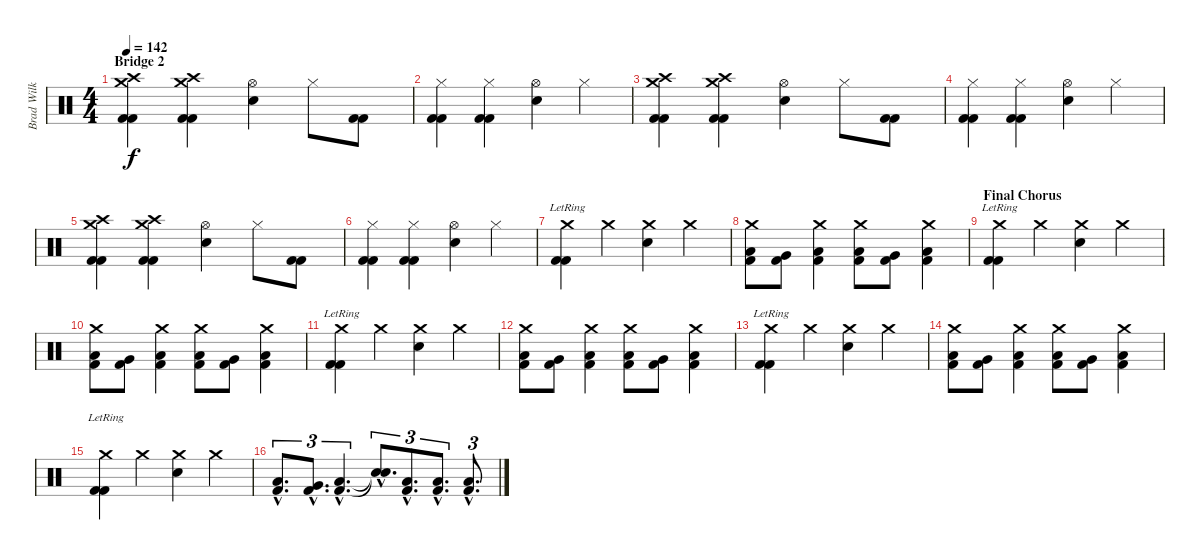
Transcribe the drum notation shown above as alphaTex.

\track ("Brad Wilk" "Brad Wilk") {instrument percussion}
\staff {score}
\articulation defaults
\ts (4 4)
\section ("" "Bridge 2")
\tempo 142
\clef neutral
\ks c
("Crash medium (hit)" "Crash high (hit)" "Kick (hit) 2" "Kick (hit) 2").4{dy f} ("Crash medium (hit)" "Crash high (hit)" "Kick (hit) 2" "Kick (hit) 2").4 ("Hi-Hat (open)" "Electric Snare (hit)").4 "Hi-Hat (closed)".8 ("Kick (hit) 2" "Kick (hit) 2").8 |
("Hi-Hat (closed)" "Kick (hit) 2" "Kick (hit) 2").4 ("Hi-Hat (closed)" "Kick (hit) 2" "Kick (hit) 2").4 ("Hi-Hat (open)" "Electric Snare (hit)").4 "Hi-Hat (closed)".4 |
("Crash medium (hit)" "Crash high (hit)" "Kick (hit) 2" "Kick (hit) 2").4 ("Crash medium (hit)" "Crash high (hit)" "Kick (hit) 2" "Kick (hit) 2").4 ("Hi-Hat (open)" "Electric Snare (hit)").4 "Hi-Hat (closed)".8 ("Kick (hit) 2" "Kick (hit) 2").8 |
("Hi-Hat (closed)" "Kick (hit) 2" "Kick (hit) 2").4 ("Hi-Hat (closed)" "Kick (hit) 2" "Kick (hit) 2").4 ("Hi-Hat (open)" "Electric Snare (hit)").4 "Hi-Hat (closed)".4 |
("Crash medium (hit)" "Crash high (hit)" "Kick (hit) 2" "Kick (hit) 2").4 ("Crash medium (hit)" "Crash high (hit)" "Kick (hit) 2" "Kick (hit) 2").4 ("Hi-Hat (open)" "Electric Snare (hit)").4 "Hi-Hat (closed)".8 ("Kick (hit) 2" "Kick (hit) 2").8 |
("Hi-Hat (closed)" "Kick (hit) 2" "Kick (hit) 2").4 ("Hi-Hat (closed)" "Kick (hit) 2" "Kick (hit) 2").4 ("Hi-Hat (open)" "Electric Snare (hit)").4 "Hi-Hat (closed)".4 |
("Crash medium (hit)"{lr} "Kick (hit) 2" "Kick (hit) 2").4 "Crash medium (hit)".4 ("Crash medium (hit)" "Electric Snare (hit)").4 "Crash medium (hit)".4 |
("Crash medium (hit)" "Low Tom (hit)" "Kick (hit) 2").8 ("Very Low Tom (hit)" "Kick (hit) 2").8 ("Crash medium (hit)" "Low Floor Tom (hit)" "Kick (hit) 2").4 ("Crash medium (hit)" "Low Tom (hit)" "Kick (hit) 2").8 ("Very Low Tom (hit)" "Kick (hit) 2").8 ("Crash medium (hit)" "Low Floor Tom (hit)" "Kick (hit) 2").4 |
\section ("" "Final Chorus")
("Crash medium (hit)"{lr} "Kick (hit) 2" "Kick (hit) 2").4 "Crash medium (hit)".4 ("Crash medium (hit)" "Electric Snare (hit)").4 "Crash medium (hit)".4 |
("Crash medium (hit)" "Low Tom (hit)" "Kick (hit) 2").8 ("Very Low Tom (hit)" "Kick (hit) 2").8 ("Crash medium (hit)" "Low Floor Tom (hit)" "Kick (hit) 2").4 ("Crash medium (hit)" "Low Tom (hit)" "Kick (hit) 2").8 ("Very Low Tom (hit)" "Kick (hit) 2").8 ("Crash medium (hit)" "Low Floor Tom (hit)" "Kick (hit) 2").4 |
("Crash medium (hit)"{lr} "Kick (hit) 2" "Kick (hit) 2").4 "Crash medium (hit)".4 ("Crash medium (hit)" "Electric Snare (hit)").4 "Crash medium (hit)".4 |
("Crash medium (hit)" "Low Tom (hit)" "Kick (hit) 2").8 ("Very Low Tom (hit)" "Kick (hit) 2").8 ("Crash medium (hit)" "Low Floor Tom (hit)" "Kick (hit) 2").4 ("Crash medium (hit)" "Low Tom (hit)" "Kick (hit) 2").8 ("Very Low Tom (hit)" "Kick (hit) 2").8 ("Crash medium (hit)" "Low Floor Tom (hit)" "Kick (hit) 2").4 |
("Crash medium (hit)"{lr} "Kick (hit) 2" "Kick (hit) 2").4 "Crash medium (hit)".4 ("Crash medium (hit)" "Electric Snare (hit)").4 "Crash medium (hit)".4 |
("Crash medium (hit)" "Low Tom (hit)" "Kick (hit) 2").8 ("Very Low Tom (hit)" "Kick (hit) 2").8 ("Crash medium (hit)" "Low Floor Tom (hit)" "Kick (hit) 2").4 ("Crash medium (hit)" "Low Tom (hit)" "Kick (hit) 2").8 ("Very Low Tom (hit)" "Kick (hit) 2").8 ("Crash medium (hit)" "Low Floor Tom (hit)" "Kick (hit) 2").4 |
("Crash medium (hit)"{lr} "Kick (hit) 2" "Kick (hit) 2").4 "Crash medium (hit)".4 ("Crash medium (hit)" "Electric Snare (hit)").4 "Crash medium (hit)".4 |
("Low Tom (hit)"{hac} "Kick (hit) 2"{hac}).8{d tu (3 2)} ("Very Low Tom (hit)"{hac} "Kick (hit) 2"{hac}).8{d tu (3 2)} ("Low Floor Tom (hit)"{hac} "Kick (hit) 2"{hac}).4{d tu (3 2)} ("Snare (hit)"{hac t} "Snare (hit)"{hac t}).8{d tu (3 2)} ("Low Tom (hit)"{hac} "Kick (hit) 2"{hac}).8{d tu (3 2)} ("Low Tom (hit)"{hac} "Kick (hit) 2"{hac}).8{d tu (3 2)} ("Low Floor Tom (hit)"{hac} "Kick (hit) 2"{hac}).8{d tu (3 2)}
